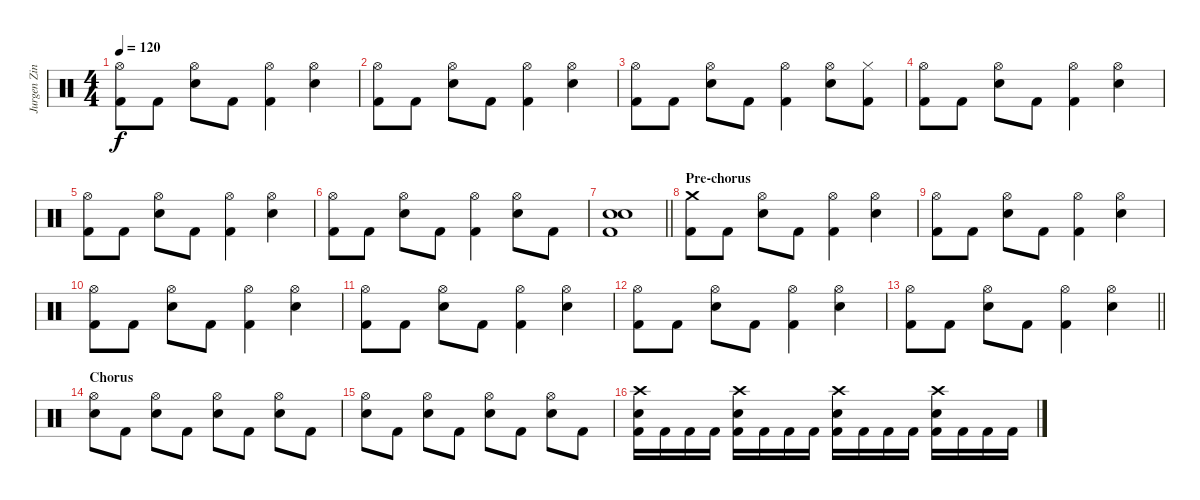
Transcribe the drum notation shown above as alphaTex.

\track ("Jurgen Zing" "Jurgen Zin") {instrument percussion}
\staff {score}
\articulation defaults
\ts (4 4)
\tempo 120
\clef neutral
\ks c
("Hi-Hat (open)" "Kick (hit) 2").8{dy f} "Kick (hit) 2".8 ("Hi-Hat (open)" "Electric Snare (hit)").8 "Kick (hit) 2".8 ("Hi-Hat (open)" "Kick (hit) 2").4 ("Hi-Hat (open)" "Electric Snare (hit)").4 |
("Hi-Hat (open)" "Kick (hit) 2").8 "Kick (hit) 2".8 ("Hi-Hat (open)" "Electric Snare (hit)").8 "Kick (hit) 2".8 ("Hi-Hat (open)" "Kick (hit) 2").4 ("Hi-Hat (open)" "Electric Snare (hit)").4 |
("Hi-Hat (open)" "Kick (hit) 2").8 "Kick (hit) 2".8 ("Hi-Hat (open)" "Electric Snare (hit)").8 "Kick (hit) 2".8 ("Hi-Hat (open)" "Kick (hit) 2").4 ("Hi-Hat (open)" "Electric Snare (hit)").8 ("Hi-Hat (closed)" "Kick (hit) 2").8 |
("Hi-Hat (open)" "Kick (hit) 2").8 "Kick (hit) 2".8 ("Hi-Hat (open)" "Electric Snare (hit)").8 "Kick (hit) 2".8 ("Hi-Hat (open)" "Kick (hit) 2").4 ("Hi-Hat (open)" "Electric Snare (hit)").4 |
("Hi-Hat (open)" "Kick (hit) 2").8 "Kick (hit) 2".8 ("Hi-Hat (open)" "Electric Snare (hit)").8 "Kick (hit) 2".8 ("Hi-Hat (open)" "Kick (hit) 2").4 ("Hi-Hat (open)" "Electric Snare (hit)").4 |
("Hi-Hat (open)" "Kick (hit) 2").8 "Kick (hit) 2".8 ("Hi-Hat (open)" "Electric Snare (hit)").8 "Kick (hit) 2".8 ("Hi-Hat (open)" "Kick (hit) 2").4 ("Hi-Hat (open)" "Electric Snare (hit)").8 "Kick (hit) 2".8 |
\barLineRight lightlight
("Electric Snare (hit)" "Electric Snare (hit)" "Kick (hit) 2").1 |
\section ("" "Pre-chorus")
("Crash medium (hit)" "Kick (hit) 2").8 "Kick (hit) 2".8 ("Hi-Hat (open)" "Electric Snare (hit)").8 "Kick (hit) 2".8 ("Hi-Hat (open)" "Kick (hit) 2").4 ("Hi-Hat (open)" "Electric Snare (hit)").4 |
("Hi-Hat (open)" "Kick (hit) 2").8 "Kick (hit) 2".8 ("Hi-Hat (open)" "Electric Snare (hit)").8 "Kick (hit) 2".8 ("Hi-Hat (open)" "Kick (hit) 2").4 ("Hi-Hat (open)" "Electric Snare (hit)").4 |
("Hi-Hat (open)" "Kick (hit) 2").8 "Kick (hit) 2".8 ("Hi-Hat (open)" "Electric Snare (hit)").8 "Kick (hit) 2".8 ("Hi-Hat (open)" "Kick (hit) 2").4 ("Hi-Hat (open)" "Electric Snare (hit)").4 |
("Hi-Hat (open)" "Kick (hit) 2").8 "Kick (hit) 2".8 ("Hi-Hat (open)" "Electric Snare (hit)").8 "Kick (hit) 2".8 ("Hi-Hat (open)" "Kick (hit) 2").4 ("Hi-Hat (open)" "Electric Snare (hit)").4 |
("Hi-Hat (open)" "Kick (hit) 2").8 "Kick (hit) 2".8 ("Hi-Hat (open)" "Electric Snare (hit)").8 "Kick (hit) 2".8 ("Hi-Hat (open)" "Kick (hit) 2").4 ("Hi-Hat (open)" "Electric Snare (hit)").4 |
\barLineRight lightlight
("Hi-Hat (open)" "Kick (hit) 2").8 "Kick (hit) 2".8 ("Hi-Hat (open)" "Electric Snare (hit)").8 "Kick (hit) 2".8 ("Hi-Hat (open)" "Kick (hit) 2").4 ("Hi-Hat (open)" "Electric Snare (hit)").4 |
\section ("" "Chorus")
("Hi-Hat (open)" "Electric Snare (hit)").8 "Kick (hit) 2".8 ("Hi-Hat (open)" "Electric Snare (hit)").8 "Kick (hit) 2".8 ("Hi-Hat (open)" "Electric Snare (hit)").8 "Kick (hit) 2".8 ("Hi-Hat (open)" "Electric Snare (hit)").8 "Kick (hit) 2".8 |
("Hi-Hat (open)" "Electric Snare (hit)").8 "Kick (hit) 2".8 ("Hi-Hat (open)" "Electric Snare (hit)").8 "Kick (hit) 2".8 ("Hi-Hat (open)" "Electric Snare (hit)").8 "Kick (hit) 2".8 ("Hi-Hat (open)" "Electric Snare (hit)").8 "Kick (hit) 2".8 |
("Crash high (hit)" "Electric Snare (hit)" "Kick (hit) 2").16 "Kick (hit) 2".16 "Kick (hit) 2".16 "Kick (hit) 2".16 ("Crash high (hit)" "Electric Snare (hit)" "Kick (hit) 2").16 "Kick (hit) 2".16 "Kick (hit) 2".16 "Kick (hit) 2".16 ("Crash high (hit)" "Electric Snare (hit)" "Kick (hit) 2").16 "Kick (hit) 2".16 "Kick (hit) 2".16 "Kick (hit) 2".16 ("Crash high (hit)" "Electric Snare (hit)" "Kick (hit) 2").16 "Kick (hit) 2".16 "Kick (hit) 2".16 "Kick (hit) 2".16
